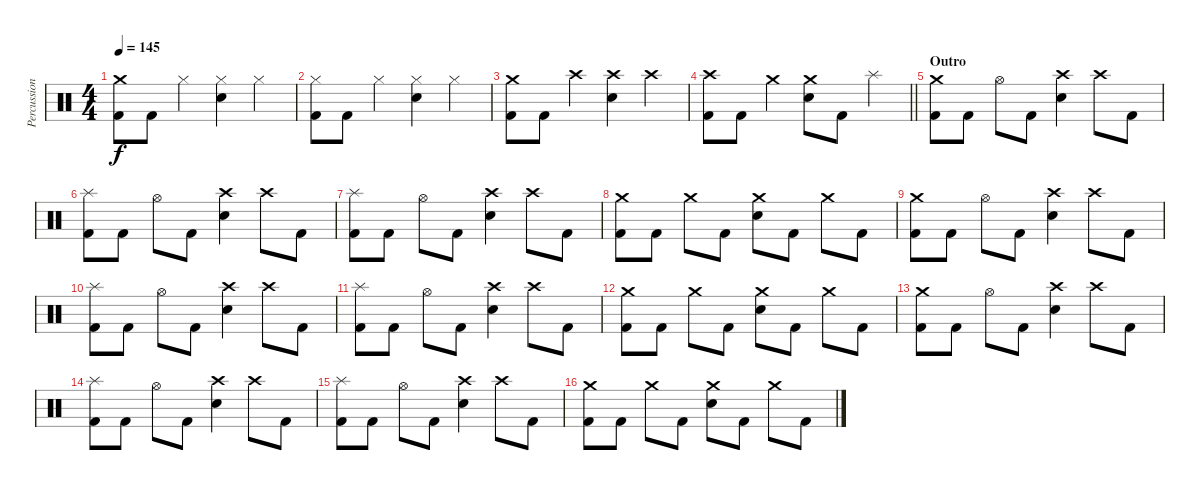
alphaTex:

\track ("Percussion" "Percussion") {instrument percussion}
\staff {score}
\articulation defaults
\ts (4 4)
\tempo 145
\clef neutral
\ks c
("Crash medium (hit)" "Kick (hit) 2").8{dy f} "Kick (hit) 2".8 "Hi-Hat (closed)".4 ("Hi-Hat (closed)" "Electric Snare (hit)").4 "Hi-Hat (closed)".4 |
("Hi-Hat (closed)" "Kick (hit) 2").8 "Kick (hit) 2".8 "Hi-Hat (closed)".4 ("Hi-Hat (closed)" "Electric Snare (hit)").4 "Hi-Hat (closed)".4 |
("Crash medium (hit)" "Kick (hit) 2").8 "Kick (hit) 2".8 "Crash high (hit)".4 ("Crash high (hit)" "Electric Snare (hit)").4 "Crash high (hit)".4 |
\barLineRight lightlight
("Crash high (hit)" "Kick (hit) 2").8 "Kick (hit) 2".8 "Crash medium (hit)".4 ("Crash medium (hit)" "Electric Snare (hit)").8 "Kick (hit) 2".8 "Splash (hit)".4 |
\section ("" "Outro")
("Crash medium (hit)" "Kick (hit) 2").8 "Kick (hit) 2".8 "Hi-Hat (open)".8 "Kick (hit) 2".8 ("Crash high (hit)" "Electric Snare (hit)").4 "Crash high (hit)".8 "Kick (hit) 2".8 |
("Splash (hit)" "Kick (hit) 2").8 "Kick (hit) 2".8 "Hi-Hat (open)".8 "Kick (hit) 2".8 ("Crash high (hit)" "Electric Snare (hit)").4 "Crash high (hit)".8 "Kick (hit) 2".8 |
("Splash (hit)" "Kick (hit) 2").8 "Kick (hit) 2".8 "Hi-Hat (open)".8 "Kick (hit) 2".8 ("Crash high (hit)" "Electric Snare (hit)").4 "Crash high (hit)".8 "Kick (hit) 2".8 |
("Crash medium (hit)" "Kick (hit) 2").8 "Kick (hit) 2".8 "Crash medium (hit)".8 "Kick (hit) 2".8 ("Crash medium (hit)" "Electric Snare (hit)").8 "Kick (hit) 2".8 "Crash medium (hit)".8 "Kick (hit) 2".8 |
("Crash medium (hit)" "Kick (hit) 2").8 "Kick (hit) 2".8 "Hi-Hat (open)".8 "Kick (hit) 2".8 ("Crash high (hit)" "Electric Snare (hit)").4 "Crash high (hit)".8 "Kick (hit) 2".8 |
("Splash (hit)" "Kick (hit) 2").8 "Kick (hit) 2".8 "Hi-Hat (open)".8 "Kick (hit) 2".8 ("Crash high (hit)" "Electric Snare (hit)").4 "Crash high (hit)".8 "Kick (hit) 2".8 |
("Splash (hit)" "Kick (hit) 2").8 "Kick (hit) 2".8 "Hi-Hat (open)".8 "Kick (hit) 2".8 ("Crash high (hit)" "Electric Snare (hit)").4 "Crash high (hit)".8 "Kick (hit) 2".8 |
("Crash medium (hit)" "Kick (hit) 2").8 "Kick (hit) 2".8 "Crash medium (hit)".8 "Kick (hit) 2".8 ("Crash medium (hit)" "Electric Snare (hit)").8 "Kick (hit) 2".8 "Crash medium (hit)".8 "Kick (hit) 2".8 |
("Crash medium (hit)" "Kick (hit) 2").8 "Kick (hit) 2".8 "Hi-Hat (open)".8 "Kick (hit) 2".8 ("Crash high (hit)" "Electric Snare (hit)").4 "Crash high (hit)".8 "Kick (hit) 2".8 |
("Splash (hit)" "Kick (hit) 2").8 "Kick (hit) 2".8 "Hi-Hat (open)".8 "Kick (hit) 2".8 ("Crash high (hit)" "Electric Snare (hit)").4 "Crash high (hit)".8 "Kick (hit) 2".8 |
("Splash (hit)" "Kick (hit) 2").8 "Kick (hit) 2".8 "Hi-Hat (open)".8 "Kick (hit) 2".8 ("Crash high (hit)" "Electric Snare (hit)").4 "Crash high (hit)".8 "Kick (hit) 2".8 |
("Crash medium (hit)" "Kick (hit) 2").8 "Kick (hit) 2".8 "Crash medium (hit)".8 "Kick (hit) 2".8 ("Crash medium (hit)" "Electric Snare (hit)").8 "Kick (hit) 2".8 "Crash medium (hit)".8 "Kick (hit) 2".8
